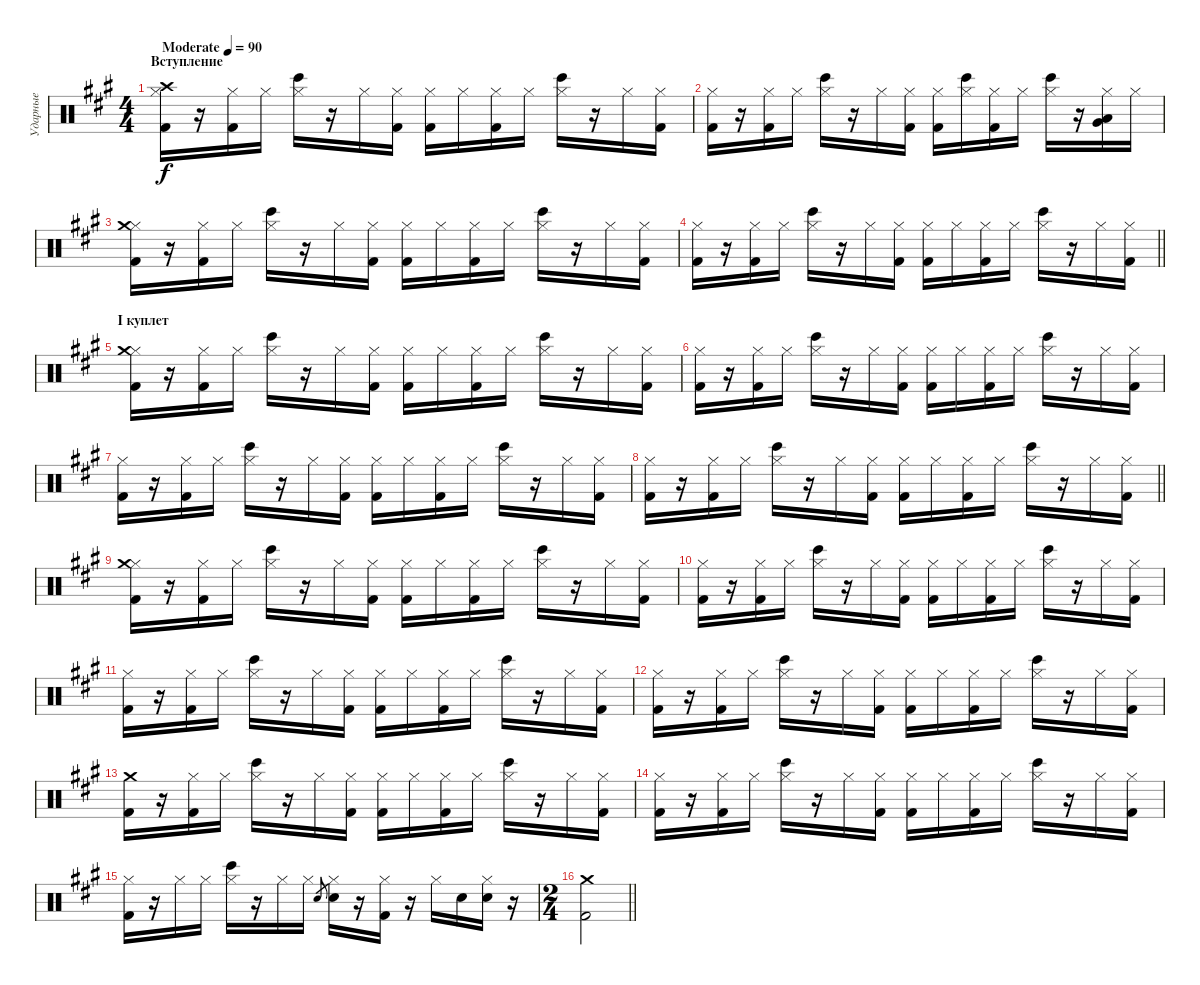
\track ("Ударные" "Ударные") {instrument percussion}
\staff {score}
\articulation defaults
\ts (4 4)
\section ("" "Вступление")
\tempo (90 "Moderate")
\clef neutral
\ks f#minor
("Hi-Hat (closed)" "Kick (hit) 2" "Crash high (hit)").16{dy f} r.16 ("Hi-Hat (closed)" "Kick (hit) 2").16 "Hi-Hat (closed)".16 ("Hi-Hat (closed)" "Bongo High (hit)").16 r.16 "Hi-Hat (closed)".16 ("Hi-Hat (closed)" "Kick (hit) 2").16 ("Hi-Hat (closed)" "Kick (hit) 2").16 "Hi-Hat (closed)".16 ("Hi-Hat (closed)" "Kick (hit) 2").16 "Hi-Hat (closed)".16 ("Hi-Hat (closed)" "Bongo High (hit)").16 r.16 "Hi-Hat (closed)".16 ("Hi-Hat (closed)" "Kick (hit) 2").16 |
("Hi-Hat (closed)" "Kick (hit) 2").16 r.16 ("Hi-Hat (closed)" "Kick (hit) 2").16 "Hi-Hat (closed)".16 ("Hi-Hat (closed)" "Bongo High (hit)").16 r.16 "Hi-Hat (closed)".16 ("Hi-Hat (closed)" "Kick (hit) 2").16 ("Hi-Hat (closed)" "Kick (hit) 2").16 ("Hi-Hat (closed)" "Bongo High (hit)").16 ("Hi-Hat (closed)" "Kick (hit) 2").16 "Hi-Hat (closed)".16 ("Hi-Hat (closed)" "Bongo High (hit)").16 r.16 ("Hi-Hat (closed)" "Very Low Tom (hit)" "Low Tom (hit)").16 "Hi-Hat (closed)".16 |
("Hi-Hat (closed)" "Kick (hit) 2" "Crash medium (hit)").16 r.16 ("Hi-Hat (closed)" "Kick (hit) 2").16 "Hi-Hat (closed)".16 ("Hi-Hat (closed)" "Bongo High (hit)").16 r.16 "Hi-Hat (closed)".16 ("Hi-Hat (closed)" "Kick (hit) 2").16 ("Hi-Hat (closed)" "Kick (hit) 2").16 "Hi-Hat (closed)".16 ("Hi-Hat (closed)" "Kick (hit) 2").16 "Hi-Hat (closed)".16 ("Hi-Hat (closed)" "Bongo High (hit)").16 r.16 "Hi-Hat (closed)".16 ("Hi-Hat (closed)" "Kick (hit) 2").16 |
\barLineRight lightlight
("Hi-Hat (closed)" "Kick (hit) 2").16 r.16 ("Hi-Hat (closed)" "Kick (hit) 2").16 "Hi-Hat (closed)".16 ("Hi-Hat (closed)" "Bongo High (hit)").16 r.16 "Hi-Hat (closed)".16 ("Hi-Hat (closed)" "Kick (hit) 2").16 ("Hi-Hat (closed)" "Kick (hit) 2").16 "Hi-Hat (closed)".16 ("Hi-Hat (closed)" "Kick (hit) 2").16 "Hi-Hat (closed)".16 ("Hi-Hat (closed)" "Bongo High (hit)").16 r.16 "Hi-Hat (closed)".16 ("Hi-Hat (closed)" "Kick (hit) 2").16 |
\section ("" "I куплет")
("Hi-Hat (closed)" "Kick (hit) 2" "Crash medium (hit)").16 r.16 ("Hi-Hat (closed)" "Kick (hit) 2").16 "Hi-Hat (closed)".16 ("Hi-Hat (closed)" "Bongo High (hit)").16 r.16 "Hi-Hat (closed)".16 ("Hi-Hat (closed)" "Kick (hit) 2").16 ("Hi-Hat (closed)" "Kick (hit) 2").16 "Hi-Hat (closed)".16 ("Hi-Hat (closed)" "Kick (hit) 2").16 "Hi-Hat (closed)".16 ("Hi-Hat (closed)" "Bongo High (hit)").16 r.16 "Hi-Hat (closed)".16 ("Hi-Hat (closed)" "Kick (hit) 2").16 |
("Hi-Hat (closed)" "Kick (hit) 2").16 r.16 ("Hi-Hat (closed)" "Kick (hit) 2").16 "Hi-Hat (closed)".16 ("Hi-Hat (closed)" "Bongo High (hit)").16 r.16 "Hi-Hat (closed)".16 ("Hi-Hat (closed)" "Kick (hit) 2").16 ("Hi-Hat (closed)" "Kick (hit) 2").16 "Hi-Hat (closed)".16 ("Hi-Hat (closed)" "Kick (hit) 2").16 "Hi-Hat (closed)".16 ("Hi-Hat (closed)" "Bongo High (hit)").16 r.16 "Hi-Hat (closed)".16 ("Hi-Hat (closed)" "Kick (hit) 2").16 |
("Hi-Hat (closed)" "Kick (hit) 2").16 r.16 ("Hi-Hat (closed)" "Kick (hit) 2").16 "Hi-Hat (closed)".16 ("Hi-Hat (closed)" "Bongo High (hit)").16 r.16 "Hi-Hat (closed)".16 ("Hi-Hat (closed)" "Kick (hit) 2").16 ("Hi-Hat (closed)" "Kick (hit) 2").16 "Hi-Hat (closed)".16 ("Hi-Hat (closed)" "Kick (hit) 2").16 "Hi-Hat (closed)".16 ("Hi-Hat (closed)" "Bongo High (hit)").16 r.16 "Hi-Hat (closed)".16 ("Hi-Hat (closed)" "Kick (hit) 2").16 |
\barLineRight lightlight
("Hi-Hat (closed)" "Kick (hit) 2").16 r.16 ("Hi-Hat (closed)" "Kick (hit) 2").16 "Hi-Hat (closed)".16 ("Hi-Hat (closed)" "Bongo High (hit)").16 r.16 "Hi-Hat (closed)".16 ("Hi-Hat (closed)" "Kick (hit) 2").16 ("Hi-Hat (closed)" "Kick (hit) 2").16 "Hi-Hat (closed)".16 ("Hi-Hat (closed)" "Kick (hit) 2").16 "Hi-Hat (closed)".16 ("Hi-Hat (closed)" "Bongo High (hit)").16 r.16 "Hi-Hat (closed)".16 ("Hi-Hat (closed)" "Kick (hit) 2").16 |
("Hi-Hat (closed)" "Kick (hit) 2" "Crash medium (hit)").16 r.16 ("Hi-Hat (closed)" "Kick (hit) 2").16 "Hi-Hat (closed)".16 ("Hi-Hat (closed)" "Bongo High (hit)").16 r.16 "Hi-Hat (closed)".16 ("Hi-Hat (closed)" "Kick (hit) 2").16 ("Hi-Hat (closed)" "Kick (hit) 2").16 "Hi-Hat (closed)".16 ("Hi-Hat (closed)" "Kick (hit) 2").16 "Hi-Hat (closed)".16 ("Hi-Hat (closed)" "Bongo High (hit)").16 r.16 "Hi-Hat (closed)".16 ("Hi-Hat (closed)" "Kick (hit) 2").16 |
("Hi-Hat (closed)" "Kick (hit) 2").16 r.16 ("Hi-Hat (closed)" "Kick (hit) 2").16 "Hi-Hat (closed)".16 ("Hi-Hat (closed)" "Bongo High (hit)").16 r.16 "Hi-Hat (closed)".16 ("Hi-Hat (closed)" "Kick (hit) 2").16 ("Hi-Hat (closed)" "Kick (hit) 2").16 "Hi-Hat (closed)".16 ("Hi-Hat (closed)" "Kick (hit) 2").16 "Hi-Hat (closed)".16 ("Hi-Hat (closed)" "Bongo High (hit)").16 r.16 "Hi-Hat (closed)".16 ("Hi-Hat (closed)" "Kick (hit) 2").16 |
("Hi-Hat (closed)" "Kick (hit) 2").16 r.16 ("Hi-Hat (closed)" "Kick (hit) 2").16 "Hi-Hat (closed)".16 ("Hi-Hat (closed)" "Bongo High (hit)").16 r.16 "Hi-Hat (closed)".16 ("Hi-Hat (closed)" "Kick (hit) 2").16 ("Hi-Hat (closed)" "Kick (hit) 2").16 "Hi-Hat (closed)".16 ("Hi-Hat (closed)" "Kick (hit) 2").16 "Hi-Hat (closed)".16 ("Hi-Hat (closed)" "Bongo High (hit)").16 r.16 "Hi-Hat (closed)".16 ("Hi-Hat (closed)" "Kick (hit) 2").16 |
("Hi-Hat (closed)" "Kick (hit) 2").16 r.16 ("Hi-Hat (closed)" "Kick (hit) 2").16 "Hi-Hat (closed)".16 ("Hi-Hat (closed)" "Bongo High (hit)").16 r.16 "Hi-Hat (closed)".16 ("Hi-Hat (closed)" "Kick (hit) 2").16 ("Hi-Hat (closed)" "Kick (hit) 2").16 "Hi-Hat (closed)".16 ("Hi-Hat (closed)" "Kick (hit) 2").16 "Hi-Hat (closed)".16 ("Hi-Hat (closed)" "Bongo High (hit)").16 r.16 "Hi-Hat (closed)".16 ("Hi-Hat (closed)" "Kick (hit) 2").16 |
("Kick (hit) 2" "Crash medium (hit)").16 r.16 ("Hi-Hat (closed)" "Kick (hit) 2").16 "Hi-Hat (closed)".16 ("Hi-Hat (closed)" "Bongo High (hit)").16 r.16 "Hi-Hat (closed)".16 ("Hi-Hat (closed)" "Kick (hit) 2").16 ("Hi-Hat (closed)" "Kick (hit) 2").16 "Hi-Hat (closed)".16 ("Hi-Hat (closed)" "Kick (hit) 2").16 "Hi-Hat (closed)".16 ("Hi-Hat (closed)" "Bongo High (hit)").16 r.16 "Hi-Hat (closed)".16 ("Hi-Hat (closed)" "Kick (hit) 2").16 |
("Hi-Hat (closed)" "Kick (hit) 2").16 r.16 ("Hi-Hat (closed)" "Kick (hit) 2").16 "Hi-Hat (closed)".16 ("Hi-Hat (closed)" "Bongo High (hit)").16 r.16 "Hi-Hat (closed)".16 ("Hi-Hat (closed)" "Kick (hit) 2").16 ("Hi-Hat (closed)" "Kick (hit) 2").16 "Hi-Hat (closed)".16 ("Hi-Hat (closed)" "Kick (hit) 2").16 "Hi-Hat (closed)".16 ("Hi-Hat (closed)" "Bongo High (hit)").16 r.16 "Hi-Hat (closed)".16 ("Hi-Hat (closed)" "Kick (hit) 2").16 |
("Hi-Hat (closed)" "Kick (hit) 2").16 r.16 "Hi-Hat (closed)".16 "Hi-Hat (closed)".16 ("Hi-Hat (closed)" "Bongo High (hit)").16 r.16 "Hi-Hat (closed)".16 "Hi-Hat (closed)".16 "Electric Snare (hit)".8{gr} ("Hi-Hat (closed)" "Electric Snare (hit)").16 r.16 ("Hi-Hat (closed)" "Kick (hit) 2").16 r.16 "Hi-Hat (closed)".16 "Electric Snare (hit)".16 ("Hi-Hat (closed)" "Electric Snare (hit)").16 r.16 |
\ts (2 4)
\barLineRight lightlight
("Kick (hit) 2" "Crash medium (hit)").2
